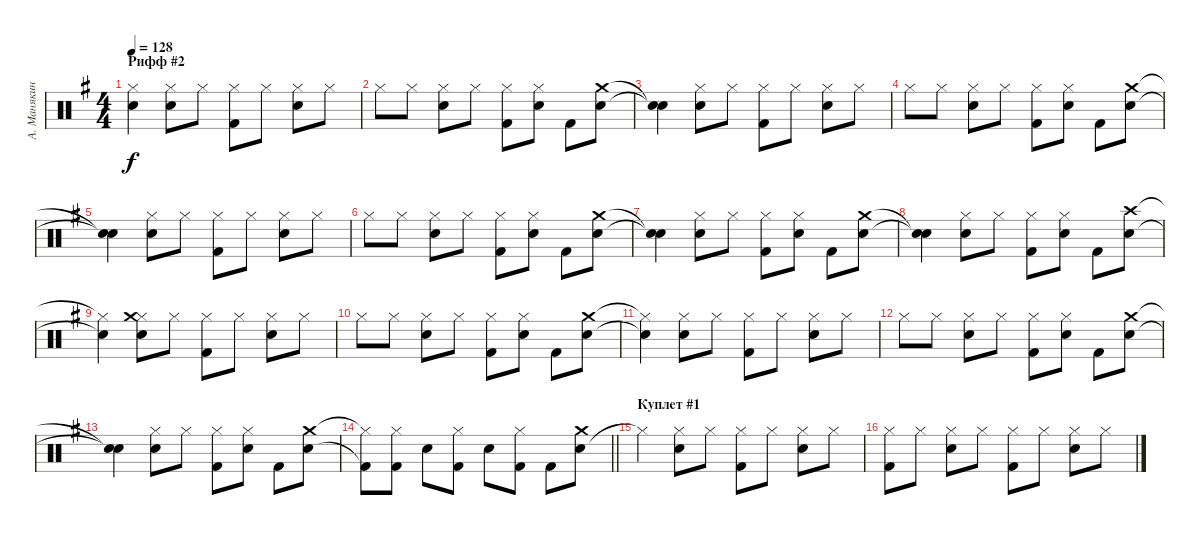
\track ("А. Манякин" "А. Манякин") {instrument percussion}
\staff {score}
\articulation defaults
\ts (4 4)
\section ("" "Рифф #2")
\tempo 128
\clef neutral
\ks g
("Snare (hit)"{t} "Hi-Hat (closed)"{t}).4{dy f} ("Electric Snare (hit)" "Hi-Hat (closed)").8 "Hi-Hat (closed)".8 ("Kick (hit) 2" "Hi-Hat (closed)").8 "Hi-Hat (closed)".8 ("Electric Snare (hit)" "Hi-Hat (closed)").8 "Hi-Hat (closed)".8 |
"Hi-Hat (closed)".8 "Hi-Hat (closed)".8 ("Electric Snare (hit)" "Hi-Hat (closed)").8 "Hi-Hat (closed)".8 ("Kick (hit) 2" "Hi-Hat (closed)").8 ("Electric Snare (hit)" "Hi-Hat (closed)").8 "Kick (hit) 2".8 ("Electric Snare (hit)" "Crash medium (hit)").8 |
("Snare (hit)"{t} "Snare (hit)"{t}).4 ("Electric Snare (hit)" "Hi-Hat (closed)").8 "Hi-Hat (closed)".8 ("Kick (hit) 2" "Hi-Hat (closed)").8 "Hi-Hat (closed)".8 ("Electric Snare (hit)" "Hi-Hat (closed)").8 "Hi-Hat (closed)".8 |
"Hi-Hat (closed)".8 "Hi-Hat (closed)".8 ("Electric Snare (hit)" "Hi-Hat (closed)").8 "Hi-Hat (closed)".8 ("Kick (hit) 2" "Hi-Hat (closed)").8 ("Electric Snare (hit)" "Hi-Hat (closed)").8 "Kick (hit) 2".8 ("Electric Snare (hit)" "Crash medium (hit)").8 |
("Snare (hit)"{t} "Snare (hit)"{t}).4 ("Electric Snare (hit)" "Hi-Hat (closed)").8 "Hi-Hat (closed)".8 ("Kick (hit) 2" "Hi-Hat (closed)").8 "Hi-Hat (closed)".8 ("Electric Snare (hit)" "Hi-Hat (closed)").8 "Hi-Hat (closed)".8 |
"Hi-Hat (closed)".8 "Hi-Hat (closed)".8 ("Electric Snare (hit)" "Hi-Hat (closed)").8 "Hi-Hat (closed)".8 ("Kick (hit) 2" "Hi-Hat (closed)").8 ("Electric Snare (hit)" "Hi-Hat (closed)").8 "Kick (hit) 2".8 ("Electric Snare (hit)" "Crash medium (hit)").8 |
("Snare (hit)"{t} "Snare (hit)"{t}).4 ("Electric Snare (hit)" "Hi-Hat (closed)").8 "Hi-Hat (closed)".8 ("Kick (hit) 2" "Hi-Hat (closed)").8 ("Electric Snare (hit)" "Hi-Hat (closed)").8 "Kick (hit) 2".8 ("Electric Snare (hit)" "Crash medium (hit)").8 |
("Snare (hit)"{t} "Snare (hit)"{t}).4 ("Electric Snare (hit)" "Hi-Hat (closed)").8 "Hi-Hat (closed)".8 ("Kick (hit) 2" "Hi-Hat (closed)").8 ("Electric Snare (hit)" "Hi-Hat (closed)").8 "Kick (hit) 2".8 ("Electric Snare (hit)" "Crash high (hit)").8 |
("Snare (hit)"{t} "Hi-Hat (closed)"{t}).4 ("Electric Snare (hit)" "Hi-Hat (closed)" "Crash medium (hit)").8 "Hi-Hat (closed)".8 ("Kick (hit) 2" "Hi-Hat (closed)").8 "Hi-Hat (closed)".8 ("Electric Snare (hit)" "Hi-Hat (closed)").8 "Hi-Hat (closed)".8 |
"Hi-Hat (closed)".8 "Hi-Hat (closed)".8 ("Electric Snare (hit)" "Hi-Hat (closed)").8 "Hi-Hat (closed)".8 ("Kick (hit) 2" "Hi-Hat (closed)").8 ("Electric Snare (hit)" "Hi-Hat (closed)").8 "Kick (hit) 2".8 ("Electric Snare (hit)" "Crash medium (hit)").8 |
("Snare (hit)"{t} "Hi-Hat (closed)"{t}).4 ("Electric Snare (hit)" "Hi-Hat (closed)").8 "Hi-Hat (closed)".8 ("Kick (hit) 2" "Hi-Hat (closed)").8 "Hi-Hat (closed)".8 ("Electric Snare (hit)" "Hi-Hat (closed)").8 "Hi-Hat (closed)".8 |
"Hi-Hat (closed)".8 "Hi-Hat (closed)".8 ("Electric Snare (hit)" "Hi-Hat (closed)").8 "Hi-Hat (closed)".8 ("Kick (hit) 2" "Hi-Hat (closed)").8 ("Electric Snare (hit)" "Hi-Hat (closed)").8 "Kick (hit) 2".8 ("Electric Snare (hit)" "Crash medium (hit)").8 |
("Snare (hit)"{t} "Snare (hit)"{t}).4 ("Electric Snare (hit)" "Hi-Hat (closed)").8 "Hi-Hat (closed)".8 ("Kick (hit) 2" "Hi-Hat (closed)").8 ("Electric Snare (hit)" "Hi-Hat (closed)").8 "Kick (hit) 2".8 ("Electric Snare (hit)" "Crash medium (hit)").8 |
\barLineRight lightlight
("Kick (hit) 2"{t} "Hi-Hat (closed)"{t}).8 ("Kick (hit) 2" "Hi-Hat (closed)").8 "Electric Snare (hit)".8 ("Kick (hit) 2" "Hi-Hat (closed)").8 "Electric Snare (hit)".8 ("Kick (hit) 2" "Hi-Hat (closed)").8 "Kick (hit) 2".8 ("Electric Snare (hit)" "Crash medium (hit)").8 |
\section ("" "Куплет #1")
"Hi-Hat (closed)"{t}.4 ("Electric Snare (hit)" "Hi-Hat (closed)").8 "Hi-Hat (closed)".8 ("Kick (hit) 2" "Hi-Hat (closed)").8 "Hi-Hat (closed)".8 ("Electric Snare (hit)" "Hi-Hat (closed)").8 "Hi-Hat (closed)".8 |
("Kick (hit) 2" "Hi-Hat (closed)").8 "Hi-Hat (closed)".8 ("Electric Snare (hit)" "Hi-Hat (closed)").8 "Hi-Hat (closed)".8 ("Kick (hit) 2" "Hi-Hat (closed)").8 "Hi-Hat (closed)".8 ("Electric Snare (hit)" "Hi-Hat (closed)").8 "Hi-Hat (closed)".8
